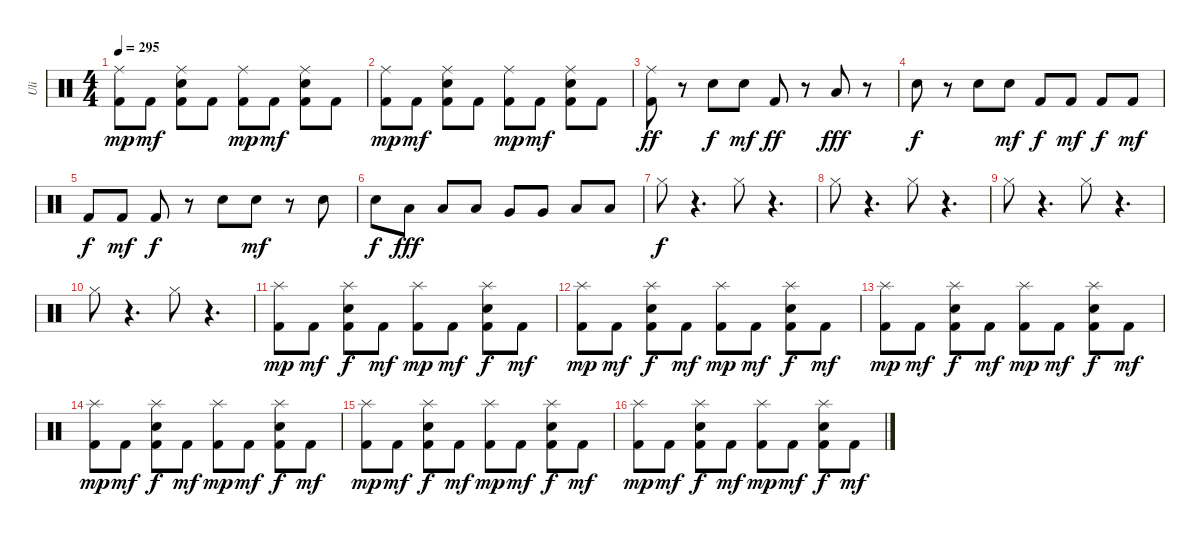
\track ("Uli" "Uli") {instrument percussion}
\staff {score}
\articulation defaults
\ts (4 4)
\tempo 295
\clef neutral
\ks c
("Ride (middle)" "Kick (hit) 2").8{dy mp} "Kick (hit) 2".8{dy mf} ("Ride (middle)" "Electric Snare (hit)" "Kick (hit) 2").8 "Kick (hit) 2".8 ("Ride (middle)" "Kick (hit) 2").8{dy mp} "Kick (hit) 2".8{dy mf} ("Ride (middle)" "Electric Snare (hit)" "Kick (hit) 2").8 "Kick (hit) 2".8 |
("Ride (middle)" "Kick (hit) 2").8{dy mp} "Kick (hit) 2".8{dy mf} ("Ride (middle)" "Electric Snare (hit)" "Kick (hit) 2").8 "Kick (hit) 2".8 ("Ride (middle)" "Kick (hit) 2").8{dy mp} "Kick (hit) 2".8{dy mf} ("Ride (middle)" "Electric Snare (hit)" "Kick (hit) 2").8 "Kick (hit) 2".8 |
("Ride (middle)" "Kick (hit) 2").8{dy ff} r.8 "Electric Snare (hit)".8{dy f} "Electric Snare (hit)".8{dy mf} "Kick (hit) 2".8{dy ff} r.8 "Low Tom (hit)".8{dy fff} r.8 |
"Electric Snare (hit)".8{dy f} r.8 "Electric Snare (hit)".8 "Electric Snare (hit)".8{dy mf} "Kick (hit) 2".8{dy f} "Kick (hit) 2".8{dy mf} "Kick (hit) 2".8{dy f} "Kick (hit) 2".8{dy mf} |
"Kick (hit) 2".8{dy f} "Kick (hit) 2".8{dy mf} "Kick (hit) 2".8{dy f} r.8 "Electric Snare (hit)".8 "Electric Snare (hit)".8{dy mf} r.8 "Electric Snare (hit)".8 |
"Electric Snare (hit)".8{dy f} "Low Tom (hit)".8{dy fff} "Low Tom (hit)".8 "Low Tom (hit)".8 "Very Low Tom (hit)".8 "Very Low Tom (hit)".8 "Low Floor Tom (hit)".8 "Low Floor Tom (hit)".8 |
"Hi-Hat (closed)".8{dy f} r.4{d} "Hi-Hat (closed)".8 r.4{d} |
"Hi-Hat (closed)".8 r.4{d} "Hi-Hat (closed)".8 r.4{d} |
"Hi-Hat (closed)".8 r.4{d} "Hi-Hat (closed)".8 r.4{d} |
"Hi-Hat (closed)".8 r.4{d} "Hi-Hat (closed)".8 r.4{d} |
("Splash (hit)" "Kick (hit) 2").8{dy mp} "Kick (hit) 2".8{dy mf} ("Splash (hit)" "Electric Snare (hit)" "Kick (hit) 2").8{dy f} "Kick (hit) 2".8{dy mf} ("Splash (hit)" "Kick (hit) 2").8{dy mp} "Kick (hit) 2".8{dy mf} ("Splash (hit)" "Electric Snare (hit)" "Kick (hit) 2").8{dy f} "Kick (hit) 2".8{dy mf} |
("Splash (hit)" "Kick (hit) 2").8{dy mp} "Kick (hit) 2".8{dy mf} ("Splash (hit)" "Electric Snare (hit)" "Kick (hit) 2").8{dy f} "Kick (hit) 2".8{dy mf} ("Splash (hit)" "Kick (hit) 2").8{dy mp} "Kick (hit) 2".8{dy mf} ("Splash (hit)" "Electric Snare (hit)" "Kick (hit) 2").8{dy f} "Kick (hit) 2".8{dy mf} |
("Splash (hit)" "Kick (hit) 2").8{dy mp} "Kick (hit) 2".8{dy mf} ("Splash (hit)" "Electric Snare (hit)" "Kick (hit) 2").8{dy f} "Kick (hit) 2".8{dy mf} ("Splash (hit)" "Kick (hit) 2").8{dy mp} "Kick (hit) 2".8{dy mf} ("Splash (hit)" "Electric Snare (hit)" "Kick (hit) 2").8{dy f} "Kick (hit) 2".8{dy mf} |
("Splash (hit)" "Kick (hit) 2").8{dy mp} "Kick (hit) 2".8{dy mf} ("Splash (hit)" "Electric Snare (hit)" "Kick (hit) 2").8{dy f} "Kick (hit) 2".8{dy mf} ("Splash (hit)" "Kick (hit) 2").8{dy mp} "Kick (hit) 2".8{dy mf} ("Splash (hit)" "Electric Snare (hit)" "Kick (hit) 2").8{dy f} "Kick (hit) 2".8{dy mf} |
("Splash (hit)" "Kick (hit) 2").8{dy mp} "Kick (hit) 2".8{dy mf} ("Splash (hit)" "Electric Snare (hit)" "Kick (hit) 2").8{dy f} "Kick (hit) 2".8{dy mf} ("Splash (hit)" "Kick (hit) 2").8{dy mp} "Kick (hit) 2".8{dy mf} ("Splash (hit)" "Electric Snare (hit)" "Kick (hit) 2").8{dy f} "Kick (hit) 2".8{dy mf} |
("Splash (hit)" "Kick (hit) 2").8{dy mp} "Kick (hit) 2".8{dy mf} ("Splash (hit)" "Electric Snare (hit)" "Kick (hit) 2").8{dy f} "Kick (hit) 2".8{dy mf} ("Splash (hit)" "Kick (hit) 2").8{dy mp} "Kick (hit) 2".8{dy mf} ("Splash (hit)" "Electric Snare (hit)" "Kick (hit) 2").8{dy f} "Kick (hit) 2".8{dy mf}
